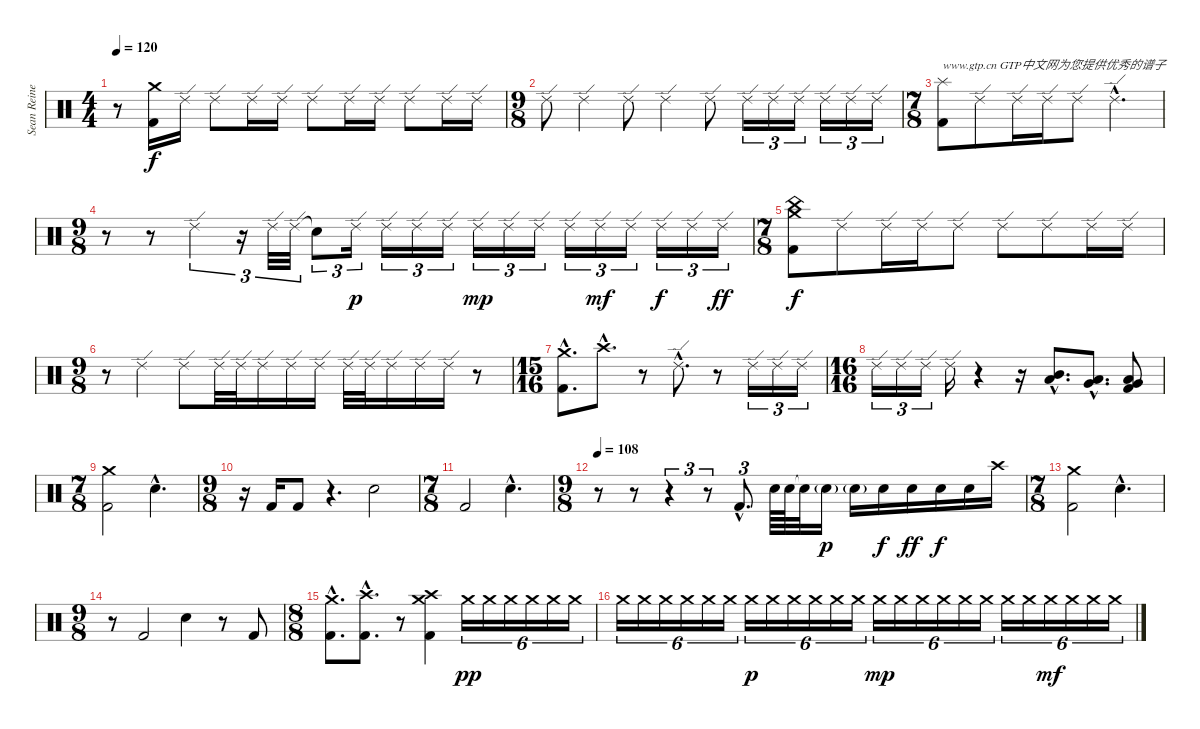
\track ("Sean Reinert" "Sean Reine") {instrument percussion}
\staff {score}
\articulation defaults
\ts (4 4)
\tempo 120
\tempo 108
\tempo 120
\clef neutral
\ks c
r.8{dy f} ("Crash medium (hit)" "Kick (hit) 2").16 "Ride (edge) 2".16 "Ride (edge) 2".8 "Ride (edge) 2".16 "Ride (edge) 2".16 "Ride (edge) 2".8 "Ride (edge) 2".16 "Ride (edge) 2".16 "Ride (edge) 2".8 "Ride (edge) 2".16 "Ride (edge) 2".16 |
\ts (9 8)
"Ride (edge) 2".8 "Ride (edge) 2".4 "Ride (edge) 2".8 "Ride (edge) 2".4 "Ride (edge) 2".8 "Ride (edge) 2".16{tu (3 2)} "Ride (edge) 2".16{tu (3 2)} "Ride (edge) 2".16{tu (3 2)} "Ride (edge) 2".16{tu (3 2)} "Ride (edge) 2".16{tu (3 2)} "Ride (edge) 2".16{tu (3 2)} |
\ts (7 8)
("Splash (hit)" "Kick (hit) 2").8{txt "www.gtp.cn GTP中文网为您提供优秀的谱子"} "Ride (edge) 2".8 "Ride (edge) 2".16 "Ride (edge) 2".16 "Ride (edge) 2".8 "Ride (edge) 2"{hac}.4{d} |
\ts (9 8)
r.8 r.8 "Ride (edge) 2".4{tu (3 2)} r.16{tu (3 2)} "Ride (edge) 2".32{tu (3 2)} "Ride (edge) 2".32{tu (3 2)} "Snare (hit)"{t}.8{tu (3 2)} "Ride (edge) 2".16{tu (3 2) dy p} "Ride (edge) 2".16{tu (3 2)} "Ride (edge) 2".16{tu (3 2)} "Ride (edge) 2".16{tu (3 2)} "Ride (edge) 2".16{tu (3 2) dy mp} "Ride (edge) 2".16{tu (3 2)} "Ride (edge) 2".16{tu (3 2)} "Ride (edge) 2".16{tu (3 2)} "Ride (edge) 2".16{tu (3 2) dy mf} "Ride (edge) 2".16{tu (3 2)} "Ride (edge) 2".16{tu (3 2) dy f} "Ride (edge) 2".16{tu (3 2)} "Ride (edge) 2".16{tu (3 2) dy ff} |
\ts (7 8)
("China (hit)" "Crash medium (hit)" "Kick (hit) 2").8{dy f} "Ride (edge) 2".8 "Ride (edge) 2".16 "Ride (edge) 2".16 "Ride (edge) 2".8 "Ride (edge) 2".8 "Ride (edge) 2".8 "Ride (edge) 2".16 "Ride (edge) 2".16 |
\ts (9 8)
r.8 "Ride (edge) 2".4 "Ride (edge) 2".8 "Ride (edge) 2".32 "Ride (edge) 2".32 "Ride (edge) 2".16 "Ride (edge) 2".16 "Ride (edge) 2".16 "Ride (edge) 2".32 "Ride (edge) 2".32 "Ride (edge) 2".16 "Ride (edge) 2".16 "Ride (edge) 2".16 r.8 |
\ts (15 16)
("Crash medium (hit)"{hac} "Kick (hit) 2"{hac}).8{d} "Crash high (hit)"{hac}.8{d} r.8 "Ride (edge) 2"{hac}.8{d} r.8 "Ride (edge) 2".16{tu (3 2)} "Ride (edge) 2".16{tu (3 2)} "Ride (edge) 2".16{tu (3 2)} |
\ts (16 16)
"Ride (edge) 2".16{tu (3 2)} "Ride (edge) 2".16{tu (3 2)} "Ride (edge) 2".16{tu (3 2)} "Ride (edge) 2".16 r.4 r.16 ("Mid Tom (hit)"{hac} "Low Tom (hit)"{hac}).8{d} ("Low Tom (hit)"{hac} "Very Low Tom (hit)"{hac}).8{d} ("Very Low Tom (hit)" "Low Floor Tom (hit)" "Kick (hit) 2").8 |
\ts (7 8)
("Crash medium (hit)" "Kick (hit) 2").2 "Snare (hit) 2"{hac}.4{d} |
\ts (9 8)
r.16 "Kick (hit) 2".16 "Kick (hit) 2".8 r.4{d} "Snare (hit) 2".2 |
\ts (7 8)
"Kick (hit) 2".2 "Snare (hit) 2"{hac}.4{d} |
\ts (9 8)
\tempo 108
r.8 r.8 r.4{tu (3 2)} r.8{tu (3 2)} "Kick (hit) 2"{hac}.8{d tu (3 2)} "Snare (hit) 2".64 "Snare (hit) 2".64 "Snare (hit)"{t}.32 "Snare (hit) 2"{g}.16{dy p} "Snare (hit) 2"{g}.16 "Snare (hit) 2".16{dy f} "Snare (hit) 2".16{dy ff} "Snare (hit) 2".16{dy f} "Snare (hit) 2".16 "Crash high (hit)".16 |
\ts (7 8)
("Crash medium (hit)" "Kick (hit) 2").2 "Snare (hit) 2"{hac}.4{d} |
\ts (9 8)
r.8 "Kick (hit) 2".2 "Snare (hit) 2".4 r.8 "Kick (hit) 2".8 |
\ts (8 8)
("Crash medium (hit)"{hac} "Kick (hit) 2"{hac}).8{d} ("Crash high (hit)"{hac} "Kick (hit) 2"{hac}).8{d} r.8 ("Crash medium (hit)" "Crash high (hit)" "Kick (hit) 2").4 "Crash medium (hit)".16{tu (6 4) dy pp} "Crash medium (hit)".16{tu (6 4)} "Crash medium (hit)".16{tu (6 4)} "Crash medium (hit)".16{tu (6 4)} "Crash medium (hit)".16{tu (6 4)} "Crash medium (hit)".16{tu (6 4)} |
"Crash medium (hit)".16{tu (6 4)} "Crash medium (hit)".16{tu (6 4)} "Crash medium (hit)".16{tu (6 4)} "Crash medium (hit)".16{tu (6 4)} "Crash medium (hit)".16{tu (6 4)} "Crash medium (hit)".16{tu (6 4)} "Crash medium (hit)".16{tu (6 4) dy p} "Crash medium (hit)".16{tu (6 4)} "Crash medium (hit)".16{tu (6 4)} "Crash medium (hit)".16{tu (6 4)} "Crash medium (hit)".16{tu (6 4)} "Crash medium (hit)".16{tu (6 4)} "Crash medium (hit)".16{tu (6 4) dy mp} "Crash medium (hit)".16{tu (6 4)} "Crash medium (hit)".16{tu (6 4)} "Crash medium (hit)".16{tu (6 4)} "Crash medium (hit)".16{tu (6 4)} "Crash medium (hit)".16{tu (6 4)} "Crash medium (hit)".16{tu (6 4)} "Crash medium (hit)".16{tu (6 4)} "Crash medium (hit)".16{tu (6 4) dy mf} "Crash medium (hit)".16{tu (6 4)} "Crash medium (hit)".16{tu (6 4)} "Crash medium (hit)".16{tu (6 4)}
